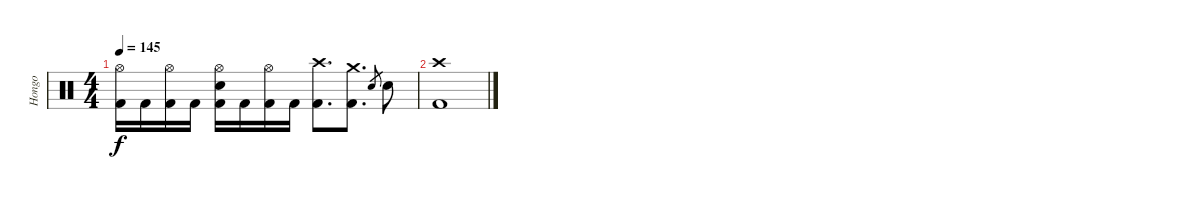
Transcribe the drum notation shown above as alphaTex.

\track ("Hongo" "Hongo") {instrument percussion}
\staff {score}
\articulation defaults
\ts (4 4)
\tempo 145
\clef neutral
\ks c
("Hi-Hat (open)" "Kick (hit) 2").16{dy f} "Kick (hit) 2".16 ("Hi-Hat (open)" "Kick (hit) 2").16 "Kick (hit) 2".16 ("Hi-Hat (open)" "Electric Snare (hit)" "Kick (hit) 2").16 "Kick (hit) 2".16 ("Hi-Hat (open)" "Kick (hit) 2").16 "Kick (hit) 2".16 ("Crash high (hit)" "Kick (hit) 2").8{d} ("Crash medium (hit)" "Kick (hit) 2").8{d} "Electric Snare (hit)".8{gr} "Electric Snare (hit)".8 |
("Crash high (hit)" "Kick (hit) 2").1
